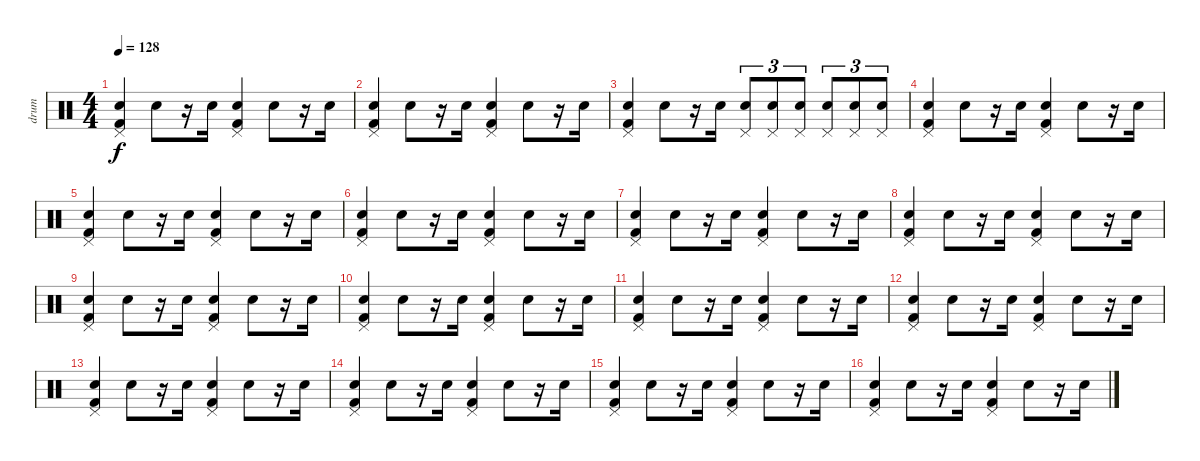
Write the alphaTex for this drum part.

\track ("drum" "drum") {instrument percussion}
\staff {score}
\articulation defaults
\ts (4 4)
\tempo 128
\clef neutral
\ks c
("Pedal Hi-Hat (hit)" "Kick (hit) 2" "Electric Snare (hit)").4{dy f} "Electric Snare (hit)".8 r.16 "Electric Snare (hit)".16 ("Pedal Hi-Hat (hit)" "Kick (hit) 2" "Electric Snare (hit)").4 "Electric Snare (hit)".8 r.16 "Electric Snare (hit)".16 |
("Pedal Hi-Hat (hit)" "Kick (hit) 2" "Electric Snare (hit)").4 "Electric Snare (hit)".8 r.16 "Electric Snare (hit)".16 ("Pedal Hi-Hat (hit)" "Kick (hit) 2" "Electric Snare (hit)").4 "Electric Snare (hit)".8 r.16 "Electric Snare (hit)".16 |
("Pedal Hi-Hat (hit)" "Kick (hit) 2" "Electric Snare (hit)").4 "Electric Snare (hit)".8 r.16 "Electric Snare (hit)".16 ("Pedal Hi-Hat (hit)" "Electric Snare (hit)").8{tu (3 2)} ("Pedal Hi-Hat (hit)" "Electric Snare (hit)").8{tu (3 2)} ("Pedal Hi-Hat (hit)" "Electric Snare (hit)").8{tu (3 2)} ("Pedal Hi-Hat (hit)" "Electric Snare (hit)").8{tu (3 2)} ("Pedal Hi-Hat (hit)" "Electric Snare (hit)").8{tu (3 2)} ("Pedal Hi-Hat (hit)" "Electric Snare (hit)").8{tu (3 2)} |
("Pedal Hi-Hat (hit)" "Kick (hit) 2" "Electric Snare (hit)").4 "Electric Snare (hit)".8 r.16 "Electric Snare (hit)".16 ("Pedal Hi-Hat (hit)" "Kick (hit) 2" "Electric Snare (hit)").4 "Electric Snare (hit)".8 r.16 "Electric Snare (hit)".16 |
("Pedal Hi-Hat (hit)" "Kick (hit) 2" "Electric Snare (hit)").4 "Electric Snare (hit)".8 r.16 "Electric Snare (hit)".16 ("Pedal Hi-Hat (hit)" "Kick (hit) 2" "Electric Snare (hit)").4 "Electric Snare (hit)".8 r.16 "Electric Snare (hit)".16 |
("Pedal Hi-Hat (hit)" "Kick (hit) 2" "Electric Snare (hit)").4 "Electric Snare (hit)".8 r.16 "Electric Snare (hit)".16 ("Pedal Hi-Hat (hit)" "Kick (hit) 2" "Electric Snare (hit)").4 "Electric Snare (hit)".8 r.16 "Electric Snare (hit)".16 |
("Pedal Hi-Hat (hit)" "Kick (hit) 2" "Electric Snare (hit)").4 "Electric Snare (hit)".8 r.16 "Electric Snare (hit)".16 ("Pedal Hi-Hat (hit)" "Kick (hit) 2" "Electric Snare (hit)").4 "Electric Snare (hit)".8 r.16 "Electric Snare (hit)".16 |
("Pedal Hi-Hat (hit)" "Kick (hit) 2" "Electric Snare (hit)").4 "Electric Snare (hit)".8 r.16 "Electric Snare (hit)".16 ("Pedal Hi-Hat (hit)" "Kick (hit) 2" "Electric Snare (hit)").4 "Electric Snare (hit)".8 r.16 "Electric Snare (hit)".16 |
("Pedal Hi-Hat (hit)" "Kick (hit) 2" "Electric Snare (hit)").4 "Electric Snare (hit)".8 r.16 "Electric Snare (hit)".16 ("Pedal Hi-Hat (hit)" "Kick (hit) 2" "Electric Snare (hit)").4 "Electric Snare (hit)".8 r.16 "Electric Snare (hit)".16 |
("Pedal Hi-Hat (hit)" "Kick (hit) 2" "Electric Snare (hit)").4 "Electric Snare (hit)".8 r.16 "Electric Snare (hit)".16 ("Pedal Hi-Hat (hit)" "Kick (hit) 2" "Electric Snare (hit)").4 "Electric Snare (hit)".8 r.16 "Electric Snare (hit)".16 |
("Pedal Hi-Hat (hit)" "Kick (hit) 2" "Electric Snare (hit)").4 "Electric Snare (hit)".8 r.16 "Electric Snare (hit)".16 ("Pedal Hi-Hat (hit)" "Kick (hit) 2" "Electric Snare (hit)").4 "Electric Snare (hit)".8 r.16 "Electric Snare (hit)".16 |
("Pedal Hi-Hat (hit)" "Kick (hit) 2" "Electric Snare (hit)").4 "Electric Snare (hit)".8 r.16 "Electric Snare (hit)".16 ("Pedal Hi-Hat (hit)" "Kick (hit) 2" "Electric Snare (hit)").4 "Electric Snare (hit)".8 r.16 "Electric Snare (hit)".16 |
("Pedal Hi-Hat (hit)" "Kick (hit) 2" "Electric Snare (hit)").4 "Electric Snare (hit)".8 r.16 "Electric Snare (hit)".16 ("Pedal Hi-Hat (hit)" "Kick (hit) 2" "Electric Snare (hit)").4 "Electric Snare (hit)".8 r.16 "Electric Snare (hit)".16 |
("Pedal Hi-Hat (hit)" "Kick (hit) 2" "Electric Snare (hit)").4 "Electric Snare (hit)".8 r.16 "Electric Snare (hit)".16 ("Pedal Hi-Hat (hit)" "Kick (hit) 2" "Electric Snare (hit)").4 "Electric Snare (hit)".8 r.16 "Electric Snare (hit)".16 |
("Pedal Hi-Hat (hit)" "Kick (hit) 2" "Electric Snare (hit)").4 "Electric Snare (hit)".8 r.16 "Electric Snare (hit)".16 ("Pedal Hi-Hat (hit)" "Kick (hit) 2" "Electric Snare (hit)").4 "Electric Snare (hit)".8 r.16 "Electric Snare (hit)".16 |
("Pedal Hi-Hat (hit)" "Kick (hit) 2" "Electric Snare (hit)").4 "Electric Snare (hit)".8 r.16 "Electric Snare (hit)".16 ("Pedal Hi-Hat (hit)" "Kick (hit) 2" "Electric Snare (hit)").4 "Electric Snare (hit)".8 r.16 "Electric Snare (hit)".16
